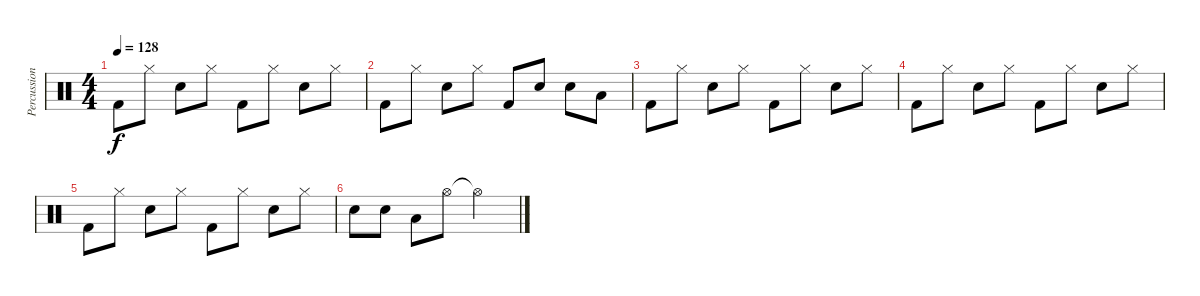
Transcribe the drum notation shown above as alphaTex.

\track ("Percussions" "Percussion") {instrument percussion}
\staff {score}
\articulation defaults
\ts (4 4)
\tempo 128
\clef neutral
\ks c "Kick (hit) 2".8{dy f} "Hi-Hat (closed)".8 "Electric Snare (hit)".8 "Hi-Hat (closed)".8 "Kick (hit) 2".8 "Hi-Hat (closed)".8 "Electric Snare (hit)".8 "Hi-Hat (closed)".8
|
"Kick (hit) 2".8 "Hi-Hat (closed)".8 "Electric Snare (hit)".8 "Hi-Hat (closed)".8 "Kick (hit) 2".8 "Electric Snare (hit)".8 "Electric Snare (hit)".8 "Low Tom (hit)".8 |
"Kick (hit) 2".8 "Hi-Hat (closed)".8 "Electric Snare (hit)".8 "Hi-Hat (closed)".8 "Kick (hit) 2".8 "Hi-Hat (closed)".8 "Electric Snare (hit)".8 "Hi-Hat (closed)".8 |
"Kick (hit) 2".8 "Hi-Hat (closed)".8 "Electric Snare (hit)".8 "Hi-Hat (closed)".8 "Kick (hit) 2".8 "Hi-Hat (closed)".8 "Electric Snare (hit)".8 "Hi-Hat (closed)".8 |
"Kick (hit) 2".8 "Hi-Hat (closed)".8 "Electric Snare (hit)".8 "Hi-Hat (closed)".8 "Kick (hit) 2".8 "Hi-Hat (closed)".8 "Electric Snare (hit)".8 "Hi-Hat (closed)".8 |
"Electric Snare (hit)".8 "Electric Snare (hit)".8 "Low Tom (hit)".8 "Hi-Hat (open)".8 "Hi-Hat (open)"{t}.2
